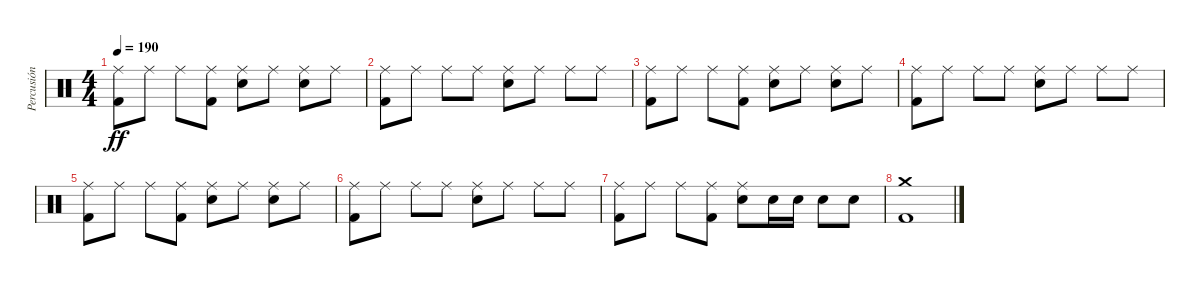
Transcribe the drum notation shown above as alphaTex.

\track ("Percusión" "Percusión") {instrument percussion}
\staff {score}
\articulation defaults
\ts (4 4)
\tempo 190
\clef neutral
\ks c
("Ride (middle)" "Kick (hit) 2").8{dy ff} "Ride (middle)".8 "Ride (middle)".8 ("Ride (middle)" "Kick (hit) 2").8 ("Ride (middle)" "Snare (hit) 2").8 "Ride (middle)".8 ("Ride (middle)" "Snare (hit) 2").8 "Ride (middle)".8 |
("Ride (middle)" "Kick (hit) 2").8 "Ride (middle)".8 "Ride (middle)".8 "Ride (middle)".8 ("Ride (middle)" "Snare (hit) 2").8 "Ride (middle)".8 "Ride (middle)".8 "Ride (middle)".8 |
("Ride (middle)" "Kick (hit) 2").8 "Ride (middle)".8 "Ride (middle)".8 ("Ride (middle)" "Kick (hit) 2").8 ("Ride (middle)" "Snare (hit) 2").8 "Ride (middle)".8 ("Ride (middle)" "Snare (hit) 2").8 "Ride (middle)".8 |
("Ride (middle)" "Kick (hit) 2").8 "Ride (middle)".8 "Ride (middle)".8 "Ride (middle)".8 ("Ride (middle)" "Snare (hit) 2").8 "Ride (middle)".8 "Ride (middle)".8 "Ride (middle)".8 |
("Ride (middle)" "Kick (hit) 2").8 "Ride (middle)".8 "Ride (middle)".8 ("Ride (middle)" "Kick (hit) 2").8 ("Ride (middle)" "Snare (hit) 2").8 "Ride (middle)".8 ("Ride (middle)" "Snare (hit) 2").8 "Ride (middle)".8 |
("Ride (middle)" "Kick (hit) 2").8 "Ride (middle)".8 "Ride (middle)".8 "Ride (middle)".8 ("Ride (middle)" "Snare (hit) 2").8 "Ride (middle)".8 "Ride (middle)".8 "Ride (middle)".8 |
("Ride (middle)" "Kick (hit) 2").8 "Ride (middle)".8 "Ride (middle)".8 ("Ride (middle)" "Kick (hit) 2").8 ("Ride (middle)" "Snare (hit) 2").8 "Snare (hit) 2".16 "Snare (hit) 2".16 "Snare (hit) 2".8 "Snare (hit) 2".8 |
("Crash medium (hit)" "Kick (hit) 2").1
